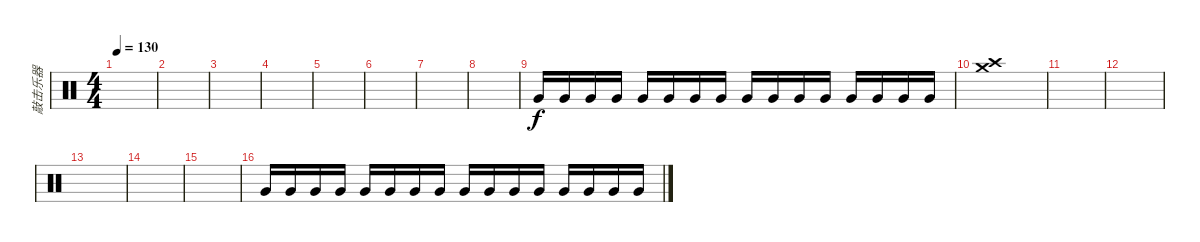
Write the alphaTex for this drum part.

\track ("敲击乐器" "敲击乐器") {instrument percussion}
\staff {score}
\articulation defaults
\ts (4 4)
\tempo 130
\clef neutral
\ks c
|
|
|
|
|
|
|
|
"Very Low Tom (hit)".16{volume 9} "Very Low Tom (hit)".16 "Very Low Tom (hit)".16 "Very Low Tom (hit)".16 "Very Low Tom (hit)".16{volume 11} "Very Low Tom (hit)".16 "Very Low Tom (hit)".16 "Very Low Tom (hit)".16 "Very Low Tom (hit)".16{volume 13} "Very Low Tom (hit)".16 "Very Low Tom (hit)".16 "Very Low Tom (hit)".16 "Very Low Tom (hit)".16{volume 16} "Very Low Tom (hit)".16 "Very Low Tom (hit)".16 "Very Low Tom (hit)".16 |
("Crash high (hit)" "Crash medium (hit)").1 |
|
|
|
|
|
"Very Low Tom (hit)".16{volume 9} "Very Low Tom (hit)".16 "Very Low Tom (hit)".16 "Very Low Tom (hit)".16 "Very Low Tom (hit)".16{volume 11} "Very Low Tom (hit)".16 "Very Low Tom (hit)".16 "Very Low Tom (hit)".16 "Very Low Tom (hit)".16{volume 13} "Very Low Tom (hit)".16 "Very Low Tom (hit)".16 "Very Low Tom (hit)".16 "Very Low Tom (hit)".16{volume 16} "Very Low Tom (hit)".16 "Very Low Tom (hit)".16 "Very Low Tom (hit)".16
